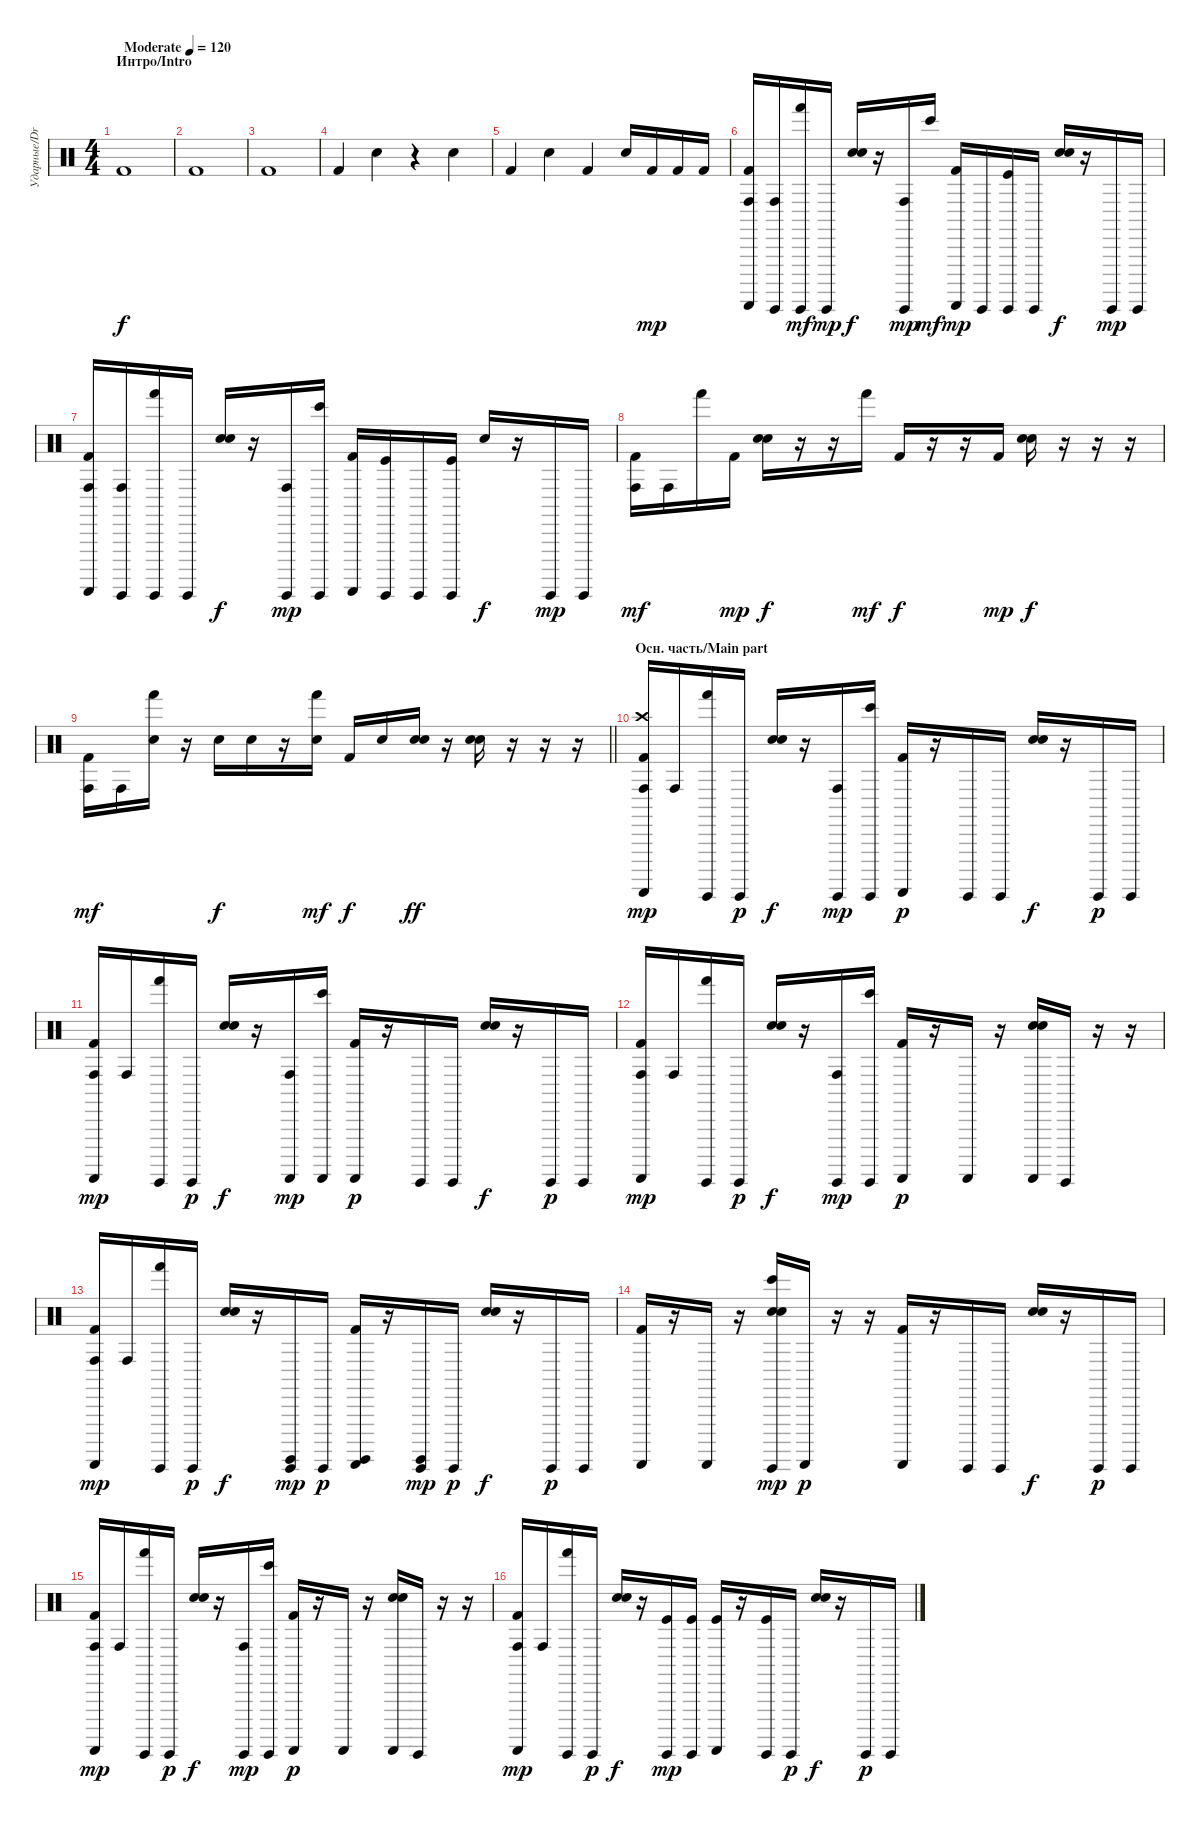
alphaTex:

\track ("Ударные/Drums" "Ударные/Dr") {instrument percussion}
\staff {score}
\articulation defaults
\ts (4 4)
\section ("" "Интро/Intro")
\tempo (120 "Moderate")
\clef neutral
\ks c "Kick (hit) 2".1{dy f}
|
"Kick (hit) 2".1 |
"Kick (hit) 2".1 |
"Kick (hit) 2".4 "Snare (hit) 2".4 r.4 "Snare (hit) 2".4 |
"Kick (hit) 2".4 "Snare (hit) 2".4 "Kick (hit) 2".4 "Snare (hit) 2".16 "Kick (hit) 2".16{dy mp} "Kick (hit) 2".16 "Kick (hit) 2".16 |
("Conga high (hit)" "Guiro (scrap-return)" "Kick (hit) 2").16 ("Conga high (hit)" "Guiro (hit)").16 ("Hand (hit)" "Guiro (hit)").16{dy mf} "Guiro (hit)".16{dy mp} ("Hand Clap (hit)" "Snare (hit) 2").16{dy f} r.16 ("Conga high (hit)" "Guiro (hit)").16{dy mp} "Bongo High (hit)".16{dy mf} ("Guiro (scrap-return)" "Kick (hit) 2").16{dy mp} "Guiro (hit)".16 ("Guiro (hit)" "Kick (hit)").16 "Guiro (hit)".16 ("Hand Clap (hit)" "Snare (hit) 2").16{dy f} r.16 "Guiro (hit)".16{dy mp} "Guiro (hit)".16 |
("Conga high (hit)" "Guiro (scrap-return)" "Kick (hit) 2").16 ("Conga high (hit)" "Guiro (hit)").16 ("Hand (hit)" "Guiro (hit)").16 "Guiro (hit)".16 ("Hand Clap (hit)" "Snare (hit) 2").16{dy f} r.16 ("Conga high (hit)" "Guiro (hit)").16{dy mp} ("Bongo High (hit)" "Guiro (hit)").16 ("Guiro (scrap-return)" "Kick (hit) 2").16 ("Guiro (hit)" "Kick (hit)").16 "Guiro (hit)".16 ("Guiro (hit)" "Kick (hit)").16 "Snare (hit) 2".16{dy f} r.16 "Guiro (hit)".16{dy mp} "Guiro (hit)".16 |
("Conga high (hit)" "Kick (hit) 2").16{dy mf} "Conga high (hit)".16 "Hand (hit)".16 "Kick (hit) 2".16{dy mp} ("Hand Clap (hit)" "Snare (hit) 2").16{dy f} r.16 r.16 "Hand (hit)".16{dy mf} "Kick (hit) 2".16{dy f} r.16 r.16 "Kick (hit) 2".16{dy mp} ("Hand Clap (hit)" "Snare (hit) 2").16{dy f} r.16 r.16 r.16 |
\barLineRight lightlight
("Conga high (hit)" "Kick (hit) 2").16{dy mf} "Conga high (hit)".16 ("Hand (hit)" "Snare (hit) 2").16 r.16 "Snare (hit) 2".16{dy f} "Snare (hit) 2".16 r.16 ("Hand (hit)" "Snare (hit) 2").16{dy mf} "Kick (hit) 2".16{dy f} "Snare (hit) 2".16 ("Hand Clap (hit)" "Hand Clap (hit)").16{dy ff} r.16 ("Hand Clap (hit)" "Hand Clap (hit)").16 r.16 r.16 r.16 |
\section ("" "Осн. часть/Main part")
("Crash high (hit)" "Guiro (scrap-return)" "Conga high (hit)" "Kick (hit) 2").16{dy mp} "Conga high (hit)".16 ("Guiro (hit)" "Hand (hit)").16 "Guiro (hit)".16{dy p} ("Hand Clap (hit)" "Snare (hit) 2").16{dy f} r.16 ("Guiro (hit)" "Conga high (hit)").16{dy mp} ("Guiro (hit)" "Bongo High (hit)").16 ("Guiro (scrap-return)" "Kick (hit) 2").16{dy p} r.16 "Guiro (hit)".16 "Guiro (hit)".16 ("Hand Clap (hit)" "Snare (hit) 2").16{dy f} r.16 "Guiro (hit)".16{dy p} "Guiro (hit)".16 |
("Guiro (scrap-return)" "Conga high (hit)" "Kick (hit) 2").16{dy mp} "Conga high (hit)".16 ("Guiro (hit)" "Hand (hit)").16 "Guiro (hit)".16{dy p} ("Hand Clap (hit)" "Snare (hit) 2").16{dy f} r.16 ("Guiro (scrap-return)" "Conga high (hit)").16{dy mp} ("Guiro (scrap-return)" "Bongo High (hit)").16 ("Guiro (scrap-return)" "Kick (hit) 2").16{dy p} r.16 "Guiro (hit)".16 "Guiro (hit)".16 ("Hand Clap (hit)" "Snare (hit) 2").16{dy f} r.16 "Guiro (hit)".16{dy p} "Guiro (hit)".16 |
("Guiro (scrap-return)" "Conga high (hit)" "Kick (hit) 2").16{dy mp} "Conga high (hit)".16 ("Guiro (hit)" "Hand (hit)").16 "Guiro (hit)".16{dy p} ("Hand Clap (hit)" "Snare (hit) 2").16{dy f} r.16 ("Guiro (hit)" "Conga high (hit)").16{dy mp} ("Guiro (hit)" "Bongo High (hit)").16 ("Guiro (scrap-return)" "Kick (hit) 2").16{dy p} r.16 "Guiro (scrap-return)".16 r.16 ("Guiro (scrap-return)" "Hand Clap (hit)" "Snare (hit) 2").16 "Guiro (hit)".16 r.16 r.16 |
("Guiro (scrap-return)" "Conga high (hit)" "Kick (hit) 2").16{dy mp} "Conga high (hit)".16 ("Guiro (hit)" "Hand (hit)").16 "Guiro (hit)".16{dy p} ("Hand Clap (hit)" "Snare (hit) 2").16{dy f} r.16 ("Guiro (hit)" "Surdo (hit)").16{dy mp} "Guiro (hit)".16{dy p} ("Guiro (scrap-return)" "Surdo (hit)" "Kick (hit) 2").16 r.16 ("Guiro (hit)" "Surdo (hit)").16{dy mp} "Guiro (hit)".16{dy p} ("Hand Clap (hit)" "Snare (hit) 2").16{dy f} r.16 "Guiro (hit)".16{dy p} "Guiro (hit)".16 |
("Guiro (scrap-return)" "Kick (hit) 2").16 r.16 "Guiro (scrap-return)".16 r.16 ("Guiro (hit)" "Bongo High (hit)" "Hand Clap (hit)" "Snare (hit) 2").16{dy mp} "Guiro (scrap-return)".16{dy p} r.16 r.16 ("Guiro (scrap-return)" "Kick (hit) 2").16 r.16 "Guiro (hit)".16 "Guiro (hit)".16 ("Hand Clap (hit)" "Snare (hit) 2").16{dy f} r.16 "Guiro (hit)".16{dy p} "Guiro (hit)".16 |
("Guiro (scrap-return)" "Conga high (hit)" "Kick (hit) 2").16{dy mp} "Conga high (hit)".16 ("Guiro (hit)" "Hand (hit)").16 "Guiro (hit)".16{dy p} ("Hand Clap (hit)" "Snare (hit) 2").16{dy f} r.16 ("Guiro (hit)" "Conga high (hit)").16{dy mp} ("Guiro (hit)" "Bongo High (hit)").16 ("Guiro (scrap-return)" "Kick (hit) 2").16{dy p} r.16 "Guiro (scrap-return)".16 r.16 ("Guiro (scrap-return)" "Hand Clap (hit)" "Snare (hit) 2").16 "Guiro (hit)".16 r.16 r.16 |
("Guiro (scrap-return)" "Conga high (hit)" "Kick (hit) 2").16{dy mp} "Conga high (hit)".16 ("Guiro (hit)" "Hand (hit)").16 "Guiro (hit)".16{dy p} ("Hand Clap (hit)" "Snare (hit) 2").16{dy f} r.16 ("Guiro (hit)" "Kick (hit)").16{dy mp} ("Guiro (hit)" "Kick (hit)").16 ("Guiro (scrap-return)" "Kick (hit)").16 r.16 ("Guiro (hit)" "Kick (hit)").16 "Guiro (hit)".16{dy p} ("Hand Clap (hit)" "Snare (hit) 2").16{dy f} r.16 "Guiro (hit)".16{dy p} "Guiro (hit)".16
